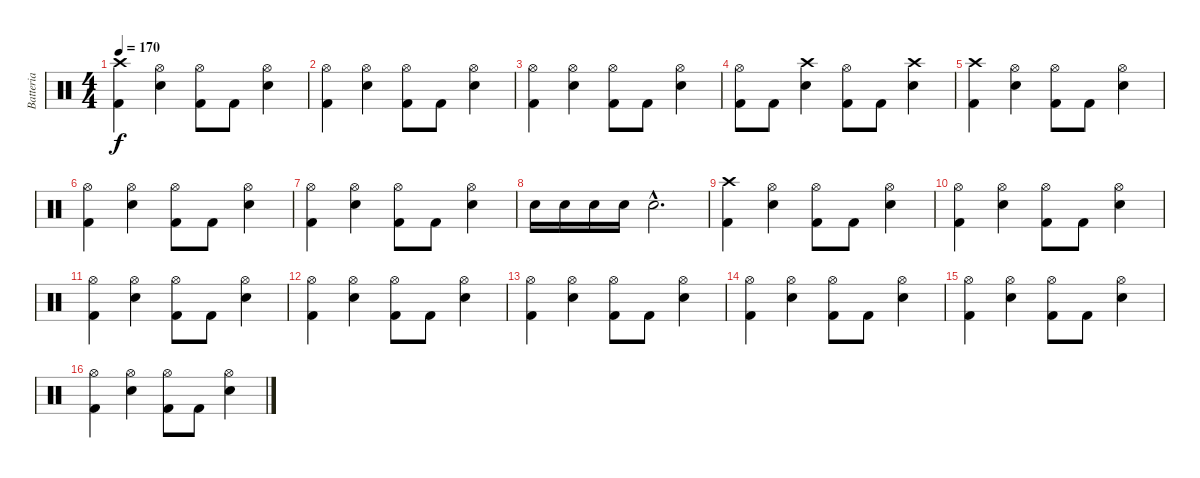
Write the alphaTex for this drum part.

\track ("Batteria" "Batteria") {instrument percussion}
\staff {score}
\articulation defaults
\ts (4 4)
\tempo 170
\clef neutral
\ks c
("Crash high (hit)" "Kick (hit) 2").4{dy f} ("Hi-Hat (open)" "Snare (hit) 2").4 ("Hi-Hat (open)" "Kick (hit) 2").8 "Kick (hit) 2".8 ("Hi-Hat (open)" "Snare (hit) 2").4 |
("Hi-Hat (open)" "Kick (hit) 2").4 ("Hi-Hat (open)" "Snare (hit) 2").4 ("Hi-Hat (open)" "Kick (hit) 2").8 "Kick (hit) 2".8 ("Hi-Hat (open)" "Snare (hit) 2").4 |
("Hi-Hat (open)" "Kick (hit) 2").4 ("Hi-Hat (open)" "Snare (hit) 2").4 ("Hi-Hat (open)" "Kick (hit) 2").8 "Kick (hit) 2".8 ("Hi-Hat (open)" "Snare (hit) 2").4 |
("Hi-Hat (open)" "Kick (hit) 2").8 "Kick (hit) 2".8 ("Crash high (hit)" "Snare (hit) 2").4 ("Hi-Hat (open)" "Kick (hit) 2").8 "Kick (hit) 2".8 ("Crash high (hit)" "Snare (hit) 2").4 |
("Crash high (hit)" "Kick (hit) 2").4 ("Hi-Hat (open)" "Snare (hit) 2").4 ("Hi-Hat (open)" "Kick (hit) 2").8 "Kick (hit) 2".8 ("Hi-Hat (open)" "Snare (hit) 2").4 |
("Hi-Hat (open)" "Kick (hit) 2").4 ("Hi-Hat (open)" "Snare (hit) 2").4 ("Hi-Hat (open)" "Kick (hit) 2").8 "Kick (hit) 2".8 ("Hi-Hat (open)" "Snare (hit) 2").4 |
("Hi-Hat (open)" "Kick (hit) 2").4 ("Hi-Hat (open)" "Snare (hit) 2").4 ("Hi-Hat (open)" "Kick (hit) 2").8 "Kick (hit) 2".8 ("Hi-Hat (open)" "Snare (hit) 2").4 |
"Snare (hit) 2".16 "Snare (hit) 2".16 "Snare (hit) 2".16 "Snare (hit) 2".16 "Snare (hit) 2"{hac}.2{d} |
("Crash high (hit)" "Kick (hit) 2").4 ("Hi-Hat (open)" "Snare (hit) 2").4 ("Hi-Hat (open)" "Kick (hit) 2").8 "Kick (hit) 2".8 ("Hi-Hat (open)" "Snare (hit) 2").4 |
("Hi-Hat (open)" "Kick (hit) 2").4 ("Hi-Hat (open)" "Snare (hit) 2").4 ("Hi-Hat (open)" "Kick (hit) 2").8 "Kick (hit) 2".8 ("Hi-Hat (open)" "Snare (hit) 2").4 |
("Hi-Hat (open)" "Kick (hit) 2").4 ("Hi-Hat (open)" "Snare (hit) 2").4 ("Hi-Hat (open)" "Kick (hit) 2").8 "Kick (hit) 2".8 ("Hi-Hat (open)" "Snare (hit) 2").4 |
("Hi-Hat (open)" "Kick (hit) 2").4 ("Hi-Hat (open)" "Snare (hit) 2").4 ("Hi-Hat (open)" "Kick (hit) 2").8 "Kick (hit) 2".8 ("Hi-Hat (open)" "Snare (hit) 2").4 |
("Hi-Hat (open)" "Kick (hit) 2").4 ("Hi-Hat (open)" "Snare (hit) 2").4 ("Hi-Hat (open)" "Kick (hit) 2").8 "Kick (hit) 2".8 ("Hi-Hat (open)" "Snare (hit) 2").4 |
("Hi-Hat (open)" "Kick (hit) 2").4 ("Hi-Hat (open)" "Snare (hit) 2").4 ("Hi-Hat (open)" "Kick (hit) 2").8 "Kick (hit) 2".8 ("Hi-Hat (open)" "Snare (hit) 2").4 |
("Hi-Hat (open)" "Kick (hit) 2").4 ("Hi-Hat (open)" "Snare (hit) 2").4 ("Hi-Hat (open)" "Kick (hit) 2").8 "Kick (hit) 2".8 ("Hi-Hat (open)" "Snare (hit) 2").4 |
("Hi-Hat (open)" "Kick (hit) 2").4 ("Hi-Hat (open)" "Snare (hit) 2").4 ("Hi-Hat (open)" "Kick (hit) 2").8 "Kick (hit) 2".8 ("Hi-Hat (open)" "Snare (hit) 2").4
